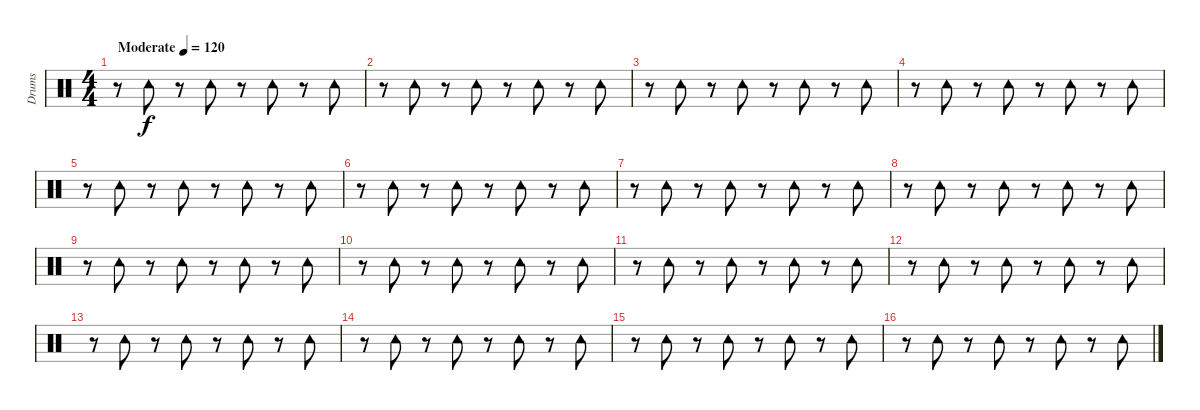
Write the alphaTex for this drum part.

\track ("Drums" "Drums") {instrument percussion}
\staff {score}
\articulation defaults
\ts (4 4)
\tempo (120 "Moderate")
\clef neutral
\ks c
r.8{dy f} "Tambourine (hit)".8 r.8 "Tambourine (hit)".8 r.8 "Tambourine (hit)".8 r.8 "Tambourine (hit)".8 |
r.8 "Tambourine (hit)".8 r.8 "Tambourine (hit)".8 r.8 "Tambourine (hit)".8 r.8 "Tambourine (hit)".8 |
r.8 "Tambourine (hit)".8 r.8 "Tambourine (hit)".8 r.8 "Tambourine (hit)".8 r.8 "Tambourine (hit)".8 |
r.8 "Tambourine (hit)".8 r.8 "Tambourine (hit)".8 r.8 "Tambourine (hit)".8 r.8 "Tambourine (hit)".8 |
r.8 "Tambourine (hit)".8 r.8 "Tambourine (hit)".8 r.8 "Tambourine (hit)".8 r.8 "Tambourine (hit)".8 |
r.8 "Tambourine (hit)".8 r.8 "Tambourine (hit)".8 r.8 "Tambourine (hit)".8 r.8 "Tambourine (hit)".8 |
r.8 "Tambourine (hit)".8 r.8 "Tambourine (hit)".8 r.8 "Tambourine (hit)".8 r.8 "Tambourine (hit)".8 |
r.8 "Tambourine (hit)".8 r.8 "Tambourine (hit)".8 r.8 "Tambourine (hit)".8 r.8 "Tambourine (hit)".8 |
r.8 "Tambourine (hit)".8 r.8 "Tambourine (hit)".8 r.8 "Tambourine (hit)".8 r.8 "Tambourine (hit)".8 |
r.8 "Tambourine (hit)".8 r.8 "Tambourine (hit)".8 r.8 "Tambourine (hit)".8 r.8 "Tambourine (hit)".8 |
r.8 "Tambourine (hit)".8 r.8 "Tambourine (hit)".8 r.8 "Tambourine (hit)".8 r.8 "Tambourine (hit)".8 |
r.8 "Tambourine (hit)".8 r.8 "Tambourine (hit)".8 r.8 "Tambourine (hit)".8 r.8 "Tambourine (hit)".8 |
r.8 "Tambourine (hit)".8 r.8 "Tambourine (hit)".8 r.8 "Tambourine (hit)".8 r.8 "Tambourine (hit)".8 |
r.8 "Tambourine (hit)".8 r.8 "Tambourine (hit)".8 r.8 "Tambourine (hit)".8 r.8 "Tambourine (hit)".8 |
r.8 "Tambourine (hit)".8 r.8 "Tambourine (hit)".8 r.8 "Tambourine (hit)".8 r.8 "Tambourine (hit)".8 |
r.8 "Tambourine (hit)".8 r.8 "Tambourine (hit)".8 r.8 "Tambourine (hit)".8 r.8 "Tambourine (hit)".8
